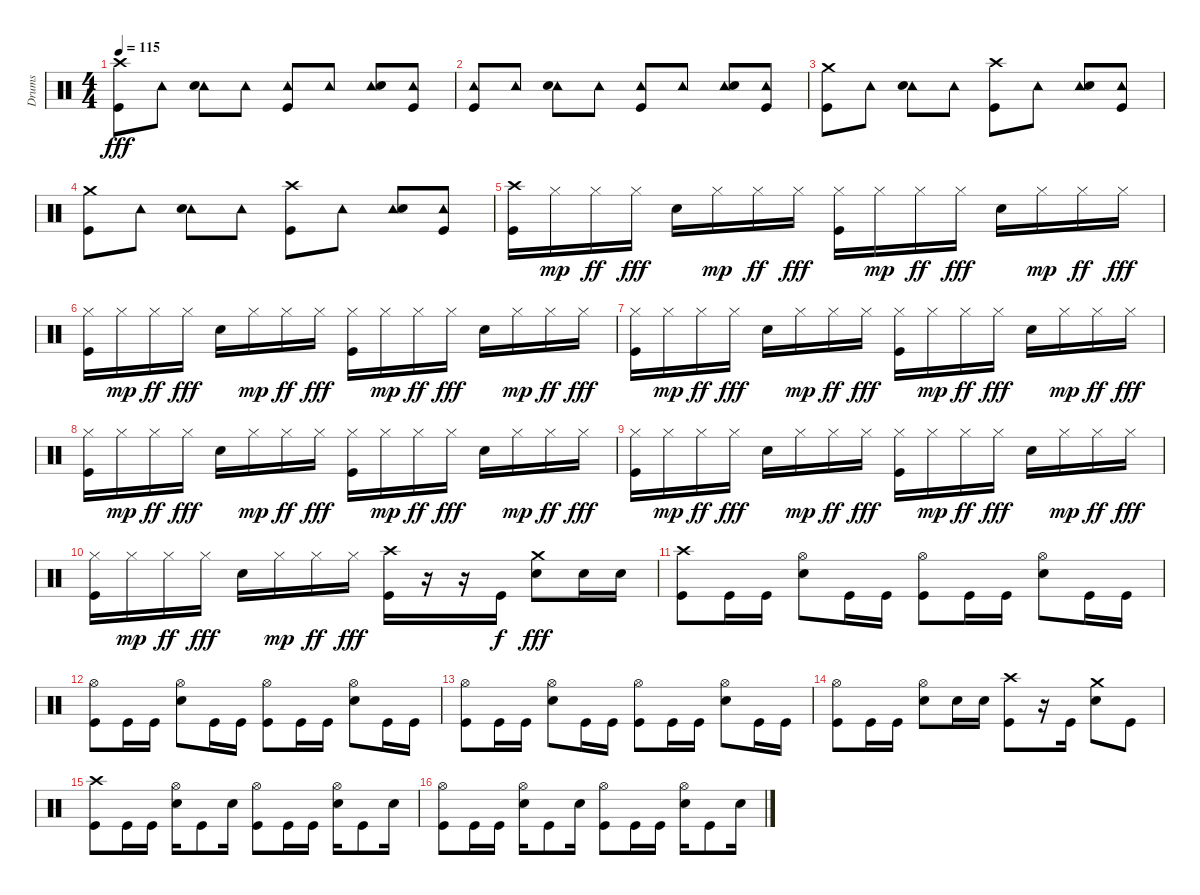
\track ("Drums" "Drums") {instrument percussion}
\staff {score}
\articulation defaults
\ts (4 4)
\tempo 115
\clef neutral
\ks c
("Crash high (hit)" "Kick (hit)").8{dy fff} "Tambourine (hit)".8 ("Tambourine (hit)" "Electric Snare (hit)").8 "Tambourine (hit)".8 ("Tambourine (hit)" "Kick (hit)").8 "Tambourine (hit)".8 ("Tambourine (hit)" "Electric Snare (hit)").8 ("Tambourine (hit)" "Kick (hit)").8 |
("Tambourine (hit)" "Kick (hit)").8 "Tambourine (hit)".8 ("Tambourine (hit)" "Electric Snare (hit)").8 "Tambourine (hit)".8 ("Tambourine (hit)" "Kick (hit)").8 "Tambourine (hit)".8 ("Tambourine (hit)" "Electric Snare (hit)").8 ("Tambourine (hit)" "Kick (hit)").8 |
("Crash medium (hit)" "Kick (hit)").8 "Tambourine (hit)".8 ("Tambourine (hit)" "Electric Snare (hit)").8 "Tambourine (hit)".8 ("Crash high (hit)" "Kick (hit)").8 "Tambourine (hit)".8 ("Tambourine (hit)" "Electric Snare (hit)").8 ("Tambourine (hit)" "Kick (hit)").8 |
("Crash medium (hit)" "Kick (hit)").8 "Tambourine (hit)".8 ("Tambourine (hit)" "Electric Snare (hit)").8 "Tambourine (hit)".8 ("Crash high (hit)" "Kick (hit)").8 "Tambourine (hit)".8 ("Tambourine (hit)" "Electric Snare (hit)").8 ("Tambourine (hit)" "Kick (hit)").8 |
("Crash high (hit)" "Kick (hit)").16 "Hi-Hat (closed)".16{dy mp} "Hi-Hat (closed)".16{dy ff} "Hi-Hat (closed)".16{dy fff} "Electric Snare (hit)".16 "Hi-Hat (closed)".16{dy mp} "Hi-Hat (closed)".16{dy ff} "Hi-Hat (closed)".16{dy fff} ("Hi-Hat (closed)" "Kick (hit)").16 "Hi-Hat (closed)".16{dy mp} "Hi-Hat (closed)".16{dy ff} "Hi-Hat (closed)".16{dy fff} "Electric Snare (hit)".16 "Hi-Hat (closed)".16{dy mp} "Hi-Hat (closed)".16{dy ff} "Hi-Hat (closed)".16{dy fff} |
("Hi-Hat (closed)" "Kick (hit)").16 "Hi-Hat (closed)".16{dy mp} "Hi-Hat (closed)".16{dy ff} "Hi-Hat (closed)".16{dy fff} "Electric Snare (hit)".16 "Hi-Hat (closed)".16{dy mp} "Hi-Hat (closed)".16{dy ff} "Hi-Hat (closed)".16{dy fff} ("Hi-Hat (closed)" "Kick (hit)").16 "Hi-Hat (closed)".16{dy mp} "Hi-Hat (closed)".16{dy ff} "Hi-Hat (closed)".16{dy fff} "Electric Snare (hit)".16 "Hi-Hat (closed)".16{dy mp} "Hi-Hat (closed)".16{dy ff} "Hi-Hat (closed)".16{dy fff} |
("Hi-Hat (closed)" "Kick (hit)").16 "Hi-Hat (closed)".16{dy mp} "Hi-Hat (closed)".16{dy ff} "Hi-Hat (closed)".16{dy fff} "Electric Snare (hit)".16 "Hi-Hat (closed)".16{dy mp} "Hi-Hat (closed)".16{dy ff} "Hi-Hat (closed)".16{dy fff} ("Hi-Hat (closed)" "Kick (hit)").16 "Hi-Hat (closed)".16{dy mp} "Hi-Hat (closed)".16{dy ff} "Hi-Hat (closed)".16{dy fff} "Electric Snare (hit)".16 "Hi-Hat (closed)".16{dy mp} "Hi-Hat (closed)".16{dy ff} "Hi-Hat (closed)".16{dy fff} |
("Hi-Hat (closed)" "Kick (hit)").16 "Hi-Hat (closed)".16{dy mp} "Hi-Hat (closed)".16{dy ff} "Hi-Hat (closed)".16{dy fff} "Electric Snare (hit)".16 "Hi-Hat (closed)".16{dy mp} "Hi-Hat (closed)".16{dy ff} "Hi-Hat (closed)".16{dy fff} ("Hi-Hat (closed)" "Kick (hit)").16 "Hi-Hat (closed)".16{dy mp} "Hi-Hat (closed)".16{dy ff} "Hi-Hat (closed)".16{dy fff} "Electric Snare (hit)".16 "Hi-Hat (closed)".16{dy mp} "Hi-Hat (closed)".16{dy ff} "Hi-Hat (closed)".16{dy fff} |
("Hi-Hat (closed)" "Kick (hit)").16 "Hi-Hat (closed)".16{dy mp} "Hi-Hat (closed)".16{dy ff} "Hi-Hat (closed)".16{dy fff} "Electric Snare (hit)".16 "Hi-Hat (closed)".16{dy mp} "Hi-Hat (closed)".16{dy ff} "Hi-Hat (closed)".16{dy fff} ("Hi-Hat (closed)" "Kick (hit)").16 "Hi-Hat (closed)".16{dy mp} "Hi-Hat (closed)".16{dy ff} "Hi-Hat (closed)".16{dy fff} "Electric Snare (hit)".16 "Hi-Hat (closed)".16{dy mp} "Hi-Hat (closed)".16{dy ff} "Hi-Hat (closed)".16{dy fff} |
("Hi-Hat (closed)" "Kick (hit)").16 "Hi-Hat (closed)".16{dy mp} "Hi-Hat (closed)".16{dy ff} "Hi-Hat (closed)".16{dy fff} "Electric Snare (hit)".16 "Hi-Hat (closed)".16{dy mp} "Hi-Hat (closed)".16{dy ff} "Hi-Hat (closed)".16{dy fff} ("Crash high (hit)" "Kick (hit)").16 r.16 r.16 "Kick (hit)".16{dy f} ("Crash medium (hit)" "Electric Snare (hit)").8{dy fff} "Electric Snare (hit)".16 "Electric Snare (hit)".16 |
("Crash high (hit)" "Kick (hit)").8 "Kick (hit)".16 "Kick (hit)".16 ("Hi-Hat (open)" "Electric Snare (hit)").8 "Kick (hit)".16 "Kick (hit)".16 ("Hi-Hat (open)" "Kick (hit)").8 "Kick (hit)".16 "Kick (hit)".16 ("Hi-Hat (open)" "Electric Snare (hit)").8 "Kick (hit)".16 "Kick (hit)".16 |
("Hi-Hat (open)" "Kick (hit)").8 "Kick (hit)".16 "Kick (hit)".16 ("Hi-Hat (open)" "Electric Snare (hit)").8 "Kick (hit)".16 "Kick (hit)".16 ("Hi-Hat (open)" "Kick (hit)").8 "Kick (hit)".16 "Kick (hit)".16 ("Hi-Hat (open)" "Electric Snare (hit)").8 "Kick (hit)".16 "Kick (hit)".16 |
("Hi-Hat (open)" "Kick (hit)").8 "Kick (hit)".16 "Kick (hit)".16 ("Hi-Hat (open)" "Electric Snare (hit)").8 "Kick (hit)".16 "Kick (hit)".16 ("Hi-Hat (open)" "Kick (hit)").8 "Kick (hit)".16 "Kick (hit)".16 ("Hi-Hat (open)" "Electric Snare (hit)").8 "Kick (hit)".16 "Kick (hit)".16 |
("Hi-Hat (open)" "Kick (hit)").8 "Kick (hit)".16 "Kick (hit)".16 ("Hi-Hat (open)" "Electric Snare (hit)").8 "Electric Snare (hit)".16 "Electric Snare (hit)".16 ("Crash high (hit)" "Kick (hit)").8 r.16 "Kick (hit)".16 ("Crash medium (hit)" "Electric Snare (hit)").8 "Kick (hit)".8 |
("Crash high (hit)" "Kick (hit)").8 "Kick (hit)".16 "Kick (hit)".16 ("Hi-Hat (open)" "Electric Snare (hit)").16 "Kick (hit)".8 "Electric Snare (hit)".16 ("Hi-Hat (open)" "Kick (hit)").8 "Kick (hit)".16 "Kick (hit)".16 ("Hi-Hat (open)" "Electric Snare (hit)").16 "Kick (hit)".8 "Electric Snare (hit)".16 |
("Hi-Hat (open)" "Kick (hit)").8 "Kick (hit)".16 "Kick (hit)".16 ("Hi-Hat (open)" "Electric Snare (hit)").16 "Kick (hit)".8 "Electric Snare (hit)".16 ("Hi-Hat (open)" "Kick (hit)").8 "Kick (hit)".16 "Kick (hit)".16 ("Hi-Hat (open)" "Electric Snare (hit)").16 "Kick (hit)".8 "Electric Snare (hit)".16
